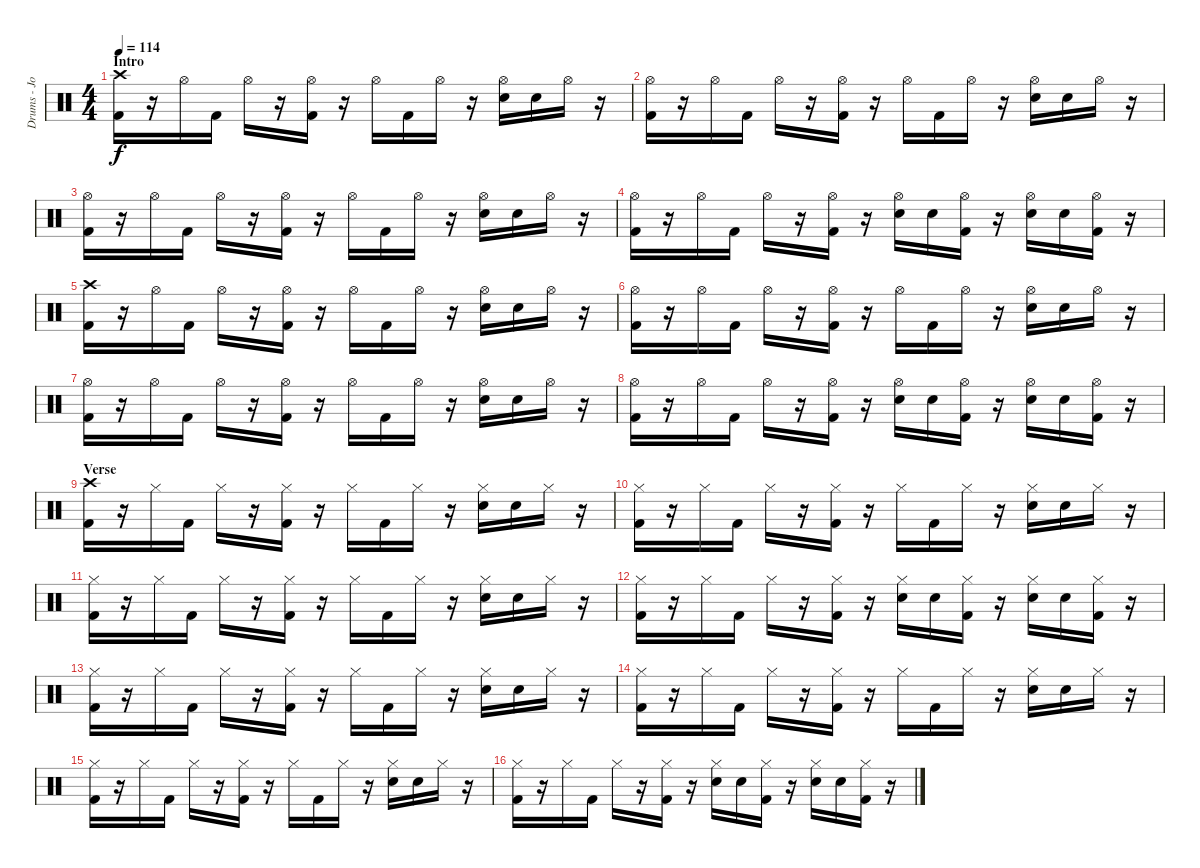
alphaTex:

\track ("Drums - Jon Wysocki" "Drums - Jo") {instrument percussion}
\staff {score}
\articulation defaults
\ts (4 4)
\section ("" "Intro")
\tempo 114
\clef neutral
\ks c
("Crash high (hit)" "Kick (hit) 2").16{dy f} r.16 "Hi-Hat (open)".16 "Kick (hit) 2".16 "Hi-Hat (open)".16 r.16 ("Hi-Hat (open)" "Kick (hit) 2").16 r.16 "Hi-Hat (open)".16 "Kick (hit) 2".16 "Hi-Hat (open)".16 r.16 ("Hi-Hat (open)" "Electric Snare (hit)").16 "Electric Snare (hit)".16 "Hi-Hat (open)".16 r.16 |
("Hi-Hat (open)" "Kick (hit) 2").16 r.16 "Hi-Hat (open)".16 "Kick (hit) 2".16 "Hi-Hat (open)".16 r.16 ("Hi-Hat (open)" "Kick (hit) 2").16 r.16 "Hi-Hat (open)".16 "Kick (hit) 2".16 "Hi-Hat (open)".16 r.16 ("Hi-Hat (open)" "Electric Snare (hit)").16 "Electric Snare (hit)".16 "Hi-Hat (open)".16 r.16 |
("Hi-Hat (open)" "Kick (hit) 2").16 r.16 "Hi-Hat (open)".16 "Kick (hit) 2".16 "Hi-Hat (open)".16 r.16 ("Hi-Hat (open)" "Kick (hit) 2").16 r.16 "Hi-Hat (open)".16 "Kick (hit) 2".16 "Hi-Hat (open)".16 r.16 ("Hi-Hat (open)" "Electric Snare (hit)").16 "Electric Snare (hit)".16 "Hi-Hat (open)".16 r.16 |
("Hi-Hat (open)" "Kick (hit) 2").16 r.16 "Hi-Hat (open)".16 "Kick (hit) 2".16 "Hi-Hat (open)".16 r.16 ("Hi-Hat (open)" "Kick (hit) 2").16 r.16 ("Hi-Hat (open)" "Electric Snare (hit)").16 "Electric Snare (hit)".16 ("Hi-Hat (open)" "Kick (hit) 2").16 r.16 ("Hi-Hat (open)" "Electric Snare (hit)").16 "Electric Snare (hit)".16 ("Hi-Hat (open)" "Kick (hit) 2").16 r.16 |
("Crash high (hit)" "Kick (hit) 2").16 r.16 "Hi-Hat (open)".16 "Kick (hit) 2".16 "Hi-Hat (open)".16 r.16 ("Hi-Hat (open)" "Kick (hit) 2").16 r.16 "Hi-Hat (open)".16 "Kick (hit) 2".16 "Hi-Hat (open)".16 r.16 ("Hi-Hat (open)" "Electric Snare (hit)").16 "Electric Snare (hit)".16 "Hi-Hat (open)".16 r.16 |
("Hi-Hat (open)" "Kick (hit) 2").16 r.16 "Hi-Hat (open)".16 "Kick (hit) 2".16 "Hi-Hat (open)".16 r.16 ("Hi-Hat (open)" "Kick (hit) 2").16 r.16 "Hi-Hat (open)".16 "Kick (hit) 2".16 "Hi-Hat (open)".16 r.16 ("Hi-Hat (open)" "Electric Snare (hit)").16 "Electric Snare (hit)".16 "Hi-Hat (open)".16 r.16 |
("Hi-Hat (open)" "Kick (hit) 2").16 r.16 "Hi-Hat (open)".16 "Kick (hit) 2".16 "Hi-Hat (open)".16 r.16 ("Hi-Hat (open)" "Kick (hit) 2").16 r.16 "Hi-Hat (open)".16 "Kick (hit) 2".16 "Hi-Hat (open)".16 r.16 ("Hi-Hat (open)" "Electric Snare (hit)").16 "Electric Snare (hit)".16 "Hi-Hat (open)".16 r.16 |
("Hi-Hat (open)" "Kick (hit) 2").16 r.16 "Hi-Hat (open)".16 "Kick (hit) 2".16 "Hi-Hat (open)".16 r.16 ("Hi-Hat (open)" "Kick (hit) 2").16 r.16 ("Hi-Hat (open)" "Electric Snare (hit)").16 "Electric Snare (hit)".16 ("Hi-Hat (open)" "Kick (hit) 2").16 r.16 ("Hi-Hat (open)" "Electric Snare (hit)").16 "Electric Snare (hit)".16 ("Hi-Hat (open)" "Kick (hit) 2").16 r.16 |
\section ("" "Verse")
("Crash high (hit)" "Kick (hit) 2").16 r.16 "Hi-Hat (closed)".16 "Kick (hit) 2".16 "Hi-Hat (closed)".16 r.16 ("Hi-Hat (closed)" "Kick (hit) 2").16 r.16 "Hi-Hat (closed)".16 "Kick (hit) 2".16 "Hi-Hat (closed)".16 r.16 ("Hi-Hat (closed)" "Electric Snare (hit)").16 "Electric Snare (hit)".16 "Hi-Hat (closed)".16 r.16 |
("Hi-Hat (closed)" "Kick (hit) 2").16 r.16 "Hi-Hat (closed)".16 "Kick (hit) 2".16 "Hi-Hat (closed)".16 r.16 ("Hi-Hat (closed)" "Kick (hit) 2").16 r.16 "Hi-Hat (closed)".16 "Kick (hit) 2".16 "Hi-Hat (closed)".16 r.16 ("Hi-Hat (closed)" "Electric Snare (hit)").16 "Electric Snare (hit)".16 "Hi-Hat (closed)".16 r.16 |
("Hi-Hat (closed)" "Kick (hit) 2").16 r.16 "Hi-Hat (closed)".16 "Kick (hit) 2".16 "Hi-Hat (closed)".16 r.16 ("Hi-Hat (closed)" "Kick (hit) 2").16 r.16 "Hi-Hat (closed)".16 "Kick (hit) 2".16 "Hi-Hat (closed)".16 r.16 ("Hi-Hat (closed)" "Electric Snare (hit)").16 "Electric Snare (hit)".16 "Hi-Hat (closed)".16 r.16 |
("Hi-Hat (closed)" "Kick (hit) 2").16 r.16 "Hi-Hat (closed)".16 "Kick (hit) 2".16 "Hi-Hat (closed)".16 r.16 ("Hi-Hat (closed)" "Kick (hit) 2").16 r.16 ("Hi-Hat (closed)" "Electric Snare (hit)").16 "Electric Snare (hit)".16 ("Hi-Hat (closed)" "Kick (hit) 2").16 r.16 ("Hi-Hat (closed)" "Electric Snare (hit)").16 "Electric Snare (hit)".16 ("Hi-Hat (closed)" "Kick (hit) 2").16 r.16 |
("Hi-Hat (closed)" "Kick (hit) 2").16 r.16 "Hi-Hat (closed)".16 "Kick (hit) 2".16 "Hi-Hat (closed)".16 r.16 ("Hi-Hat (closed)" "Kick (hit) 2").16 r.16 "Hi-Hat (closed)".16 "Kick (hit) 2".16 "Hi-Hat (closed)".16 r.16 ("Hi-Hat (closed)" "Electric Snare (hit)").16 "Electric Snare (hit)".16 "Hi-Hat (closed)".16 r.16 |
("Hi-Hat (closed)" "Kick (hit) 2").16 r.16 "Hi-Hat (closed)".16 "Kick (hit) 2".16 "Hi-Hat (closed)".16 r.16 ("Hi-Hat (closed)" "Kick (hit) 2").16 r.16 "Hi-Hat (closed)".16 "Kick (hit) 2".16 "Hi-Hat (closed)".16 r.16 ("Hi-Hat (closed)" "Electric Snare (hit)").16 "Electric Snare (hit)".16 "Hi-Hat (closed)".16 r.16 |
("Hi-Hat (closed)" "Kick (hit) 2").16 r.16 "Hi-Hat (closed)".16 "Kick (hit) 2".16 "Hi-Hat (closed)".16 r.16 ("Hi-Hat (closed)" "Kick (hit) 2").16 r.16 "Hi-Hat (closed)".16 "Kick (hit) 2".16 "Hi-Hat (closed)".16 r.16 ("Hi-Hat (closed)" "Electric Snare (hit)").16 "Electric Snare (hit)".16 "Hi-Hat (closed)".16 r.16 |
("Hi-Hat (closed)" "Kick (hit) 2").16 r.16 "Hi-Hat (closed)".16 "Kick (hit) 2".16 "Hi-Hat (closed)".16 r.16 ("Hi-Hat (closed)" "Kick (hit) 2").16 r.16 ("Hi-Hat (closed)" "Electric Snare (hit)").16 "Electric Snare (hit)".16 ("Hi-Hat (closed)" "Kick (hit) 2").16 r.16 ("Hi-Hat (closed)" "Electric Snare (hit)").16 "Electric Snare (hit)".16 ("Hi-Hat (closed)" "Kick (hit) 2").16 r.16
